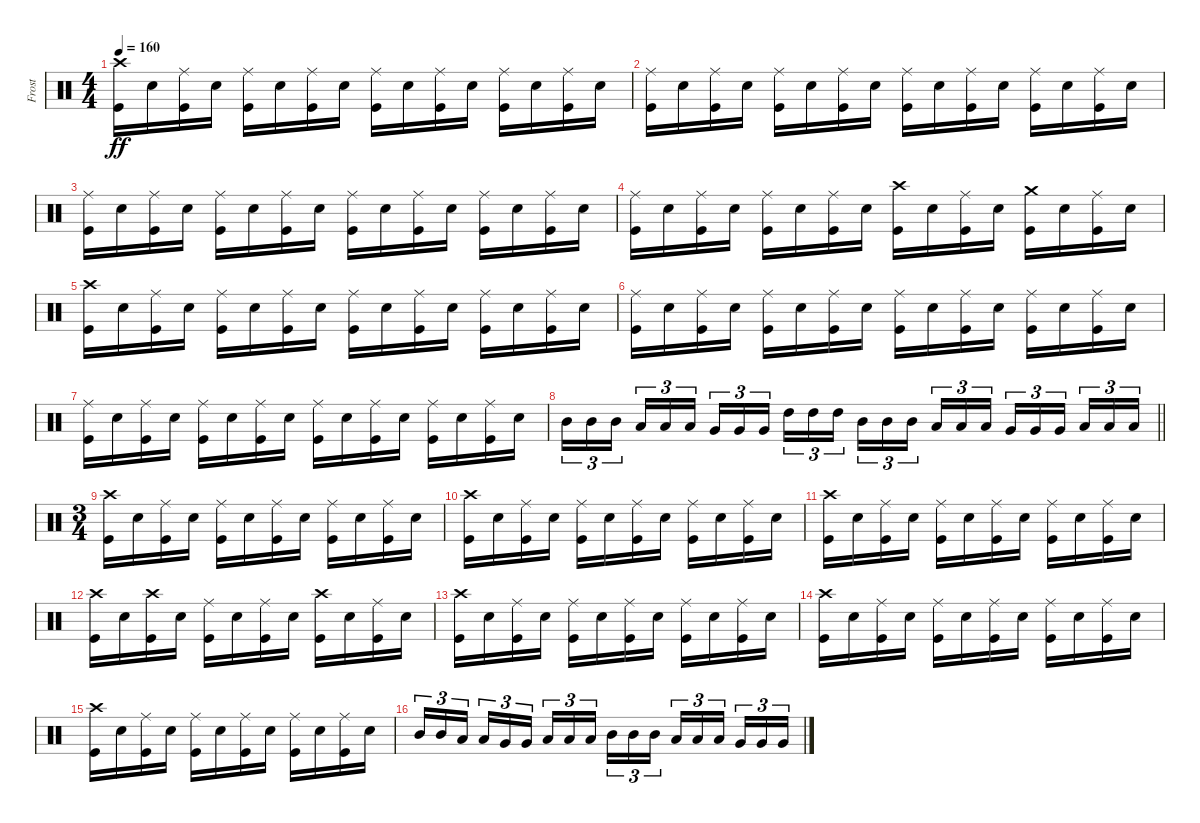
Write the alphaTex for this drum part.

\track ("Frost" "Frost") {instrument percussion}
\staff {score}
\articulation defaults
\ts (4 4)
\tempo 160
\clef neutral
\ks c
("Crash high (hit)" "Kick (hit)").16{dy ff} "Snare (hit) 2".16 ("Ride (middle)" "Kick (hit)").16 "Snare (hit) 2".16 ("Ride (middle)" "Kick (hit)").16 "Snare (hit) 2".16 ("Ride (middle)" "Kick (hit)").16 "Snare (hit) 2".16 ("Ride (middle)" "Kick (hit)").16 "Snare (hit) 2".16 ("Ride (middle)" "Kick (hit)").16 "Snare (hit) 2".16 ("Ride (middle)" "Kick (hit)").16 "Snare (hit) 2".16 ("Ride (middle)" "Kick (hit)").16 "Snare (hit) 2".16 |
("Ride (middle)" "Kick (hit)").16 "Snare (hit) 2".16 ("Ride (middle)" "Kick (hit)").16 "Snare (hit) 2".16 ("Ride (middle)" "Kick (hit)").16 "Snare (hit) 2".16 ("Ride (middle)" "Kick (hit)").16 "Snare (hit) 2".16 ("Ride (middle)" "Kick (hit)").16 "Snare (hit) 2".16 ("Ride (middle)" "Kick (hit)").16 "Snare (hit) 2".16 ("Ride (middle)" "Kick (hit)").16 "Snare (hit) 2".16 ("Ride (middle)" "Kick (hit)").16 "Snare (hit) 2".16 |
("Ride (middle)" "Kick (hit)").16 "Snare (hit) 2".16 ("Ride (middle)" "Kick (hit)").16 "Snare (hit) 2".16 ("Ride (middle)" "Kick (hit)").16 "Snare (hit) 2".16 ("Ride (middle)" "Kick (hit)").16 "Snare (hit) 2".16 ("Ride (middle)" "Kick (hit)").16 "Snare (hit) 2".16 ("Ride (middle)" "Kick (hit)").16 "Snare (hit) 2".16 ("Ride (middle)" "Kick (hit)").16 "Snare (hit) 2".16 ("Ride (middle)" "Kick (hit)").16 "Snare (hit) 2".16 |
("Ride (middle)" "Kick (hit)").16 "Snare (hit) 2".16 ("Ride (middle)" "Kick (hit)").16 "Snare (hit) 2".16 ("Ride (middle)" "Kick (hit)").16 "Snare (hit) 2".16 ("Ride (middle)" "Kick (hit)").16 "Snare (hit) 2".16 ("Crash high (hit)" "Kick (hit)").16 "Snare (hit) 2".16 ("Ride (middle)" "Kick (hit)").16 "Snare (hit) 2".16 ("Crash medium (hit)" "Kick (hit)").16 "Snare (hit) 2".16 ("Ride (middle)" "Kick (hit)").16 "Snare (hit) 2".16 |
("Crash high (hit)" "Kick (hit)").16 "Snare (hit) 2".16 ("Ride (middle)" "Kick (hit)").16 "Snare (hit) 2".16 ("Ride (middle)" "Kick (hit)").16 "Snare (hit) 2".16 ("Ride (middle)" "Kick (hit)").16 "Snare (hit) 2".16 ("Ride (middle)" "Kick (hit)").16 "Snare (hit) 2".16 ("Ride (middle)" "Kick (hit)").16 "Snare (hit) 2".16 ("Ride (middle)" "Kick (hit)").16 "Snare (hit) 2".16 ("Ride (middle)" "Kick (hit)").16 "Snare (hit) 2".16 |
("Ride (middle)" "Kick (hit)").16 "Snare (hit) 2".16 ("Ride (middle)" "Kick (hit)").16 "Snare (hit) 2".16 ("Ride (middle)" "Kick (hit)").16 "Snare (hit) 2".16 ("Ride (middle)" "Kick (hit)").16 "Snare (hit) 2".16 ("Ride (middle)" "Kick (hit)").16 "Snare (hit) 2".16 ("Ride (middle)" "Kick (hit)").16 "Snare (hit) 2".16 ("Ride (middle)" "Kick (hit)").16 "Snare (hit) 2".16 ("Ride (middle)" "Kick (hit)").16 "Snare (hit) 2".16 |
("Ride (middle)" "Kick (hit)").16 "Snare (hit) 2".16 ("Ride (middle)" "Kick (hit)").16 "Snare (hit) 2".16 ("Ride (middle)" "Kick (hit)").16 "Snare (hit) 2".16 ("Ride (middle)" "Kick (hit)").16 "Snare (hit) 2".16 ("Ride (middle)" "Kick (hit)").16 "Snare (hit) 2".16 ("Ride (middle)" "Kick (hit)").16 "Snare (hit) 2".16 ("Ride (middle)" "Kick (hit)").16 "Snare (hit) 2".16 ("Ride (middle)" "Kick (hit)").16 "Snare (hit) 2".16 |
\barLineRight lightlight "Mid Tom (hit)".16{tu (3 2)} "Mid Tom (hit)".16{tu (3 2)} "Mid Tom (hit)".16{tu (3 2) beam splitsecondary} "Low Tom (hit)".16{tu (3 2)} "Low Tom (hit)".16{tu (3 2)} "Low Tom (hit)".16{tu (3 2)} "Very Low Tom (hit)".16{tu (3 2)} "Very Low Tom (hit)".16{tu (3 2)} "Very Low Tom (hit)".16{tu (3 2) beam splitsecondary} "High Tom (hit)".16{tu (3 2)} "High Tom (hit)".16{tu (3 2)} "High Tom (hit)".16{tu (3 2)} "Mid Tom (hit)".16{tu (3 2)} "Mid Tom (hit)".16{tu (3 2)} "Mid Tom (hit)".16{tu (3 2) beam splitsecondary} "Low Tom (hit)".16{tu (3 2)} "Low Tom (hit)".16{tu (3 2)} "Low Tom (hit)".16{tu (3 2)} "Very Low Tom (hit)".16{tu (3 2)} "Very Low Tom (hit)".16{tu (3 2)} "Very Low Tom (hit)".16{tu (3 2) beam splitsecondary} "Low Floor Tom (hit)".16{tu (3 2)} "Low Floor Tom (hit)".16{tu (3 2)} "Low Floor Tom (hit)".16{tu (3 2)}
|
\ts (3 4)
("Crash high (hit)" "Kick (hit)").16 "Snare (hit) 2".16 ("Ride (middle)" "Kick (hit)").16 "Snare (hit) 2".16 ("Ride (middle)" "Kick (hit)").16 "Snare (hit) 2".16 ("Ride (middle)" "Kick (hit)").16 "Snare (hit) 2".16 ("Ride (middle)" "Kick (hit)").16 "Snare (hit) 2".16 ("Ride (middle)" "Kick (hit)").16 "Snare (hit) 2".16 |
("Crash high (hit)" "Kick (hit)").16 "Snare (hit) 2".16 ("Ride (middle)" "Kick (hit)").16 "Snare (hit) 2".16 ("Ride (middle)" "Kick (hit)").16 "Snare (hit) 2".16 ("Ride (middle)" "Kick (hit)").16 "Snare (hit) 2".16 ("Ride (middle)" "Kick (hit)").16 "Snare (hit) 2".16 ("Ride (middle)" "Kick (hit)").16 "Snare (hit) 2".16 |
("Crash high (hit)" "Kick (hit)").16 "Snare (hit) 2".16 ("Ride (middle)" "Kick (hit)").16 "Snare (hit) 2".16 ("Ride (middle)" "Kick (hit)").16 "Snare (hit) 2".16 ("Ride (middle)" "Kick (hit)").16 "Snare (hit) 2".16 ("Ride (middle)" "Kick (hit)").16 "Snare (hit) 2".16 ("Ride (middle)" "Kick (hit)").16 "Snare (hit) 2".16 |
("Crash high (hit)" "Kick (hit)").16 "Snare (hit) 2".16 ("Crash high (hit)" "Kick (hit)").16 "Snare (hit) 2".16 ("Ride (middle)" "Kick (hit)").16 "Snare (hit) 2".16 ("Ride (middle)" "Kick (hit)").16 "Snare (hit) 2".16 ("Crash high (hit)" "Kick (hit)").16 "Snare (hit) 2".16 ("Ride (middle)" "Kick (hit)").16 "Snare (hit) 2".16 |
("Crash high (hit)" "Kick (hit)").16 "Snare (hit) 2".16 ("Ride (middle)" "Kick (hit)").16 "Snare (hit) 2".16 ("Ride (middle)" "Kick (hit)").16 "Snare (hit) 2".16 ("Ride (middle)" "Kick (hit)").16 "Snare (hit) 2".16 ("Ride (middle)" "Kick (hit)").16 "Snare (hit) 2".16 ("Ride (middle)" "Kick (hit)").16 "Snare (hit) 2".16 |
("Crash high (hit)" "Kick (hit)").16 "Snare (hit) 2".16 ("Ride (middle)" "Kick (hit)").16 "Snare (hit) 2".16 ("Ride (middle)" "Kick (hit)").16 "Snare (hit) 2".16 ("Ride (middle)" "Kick (hit)").16 "Snare (hit) 2".16 ("Ride (middle)" "Kick (hit)").16 "Snare (hit) 2".16 ("Ride (middle)" "Kick (hit)").16 "Snare (hit) 2".16 |
("Crash high (hit)" "Kick (hit)").16 "Snare (hit) 2".16 ("Ride (middle)" "Kick (hit)").16 "Snare (hit) 2".16 ("Ride (middle)" "Kick (hit)").16 "Snare (hit) 2".16 ("Ride (middle)" "Kick (hit)").16 "Snare (hit) 2".16 ("Ride (middle)" "Kick (hit)").16 "Snare (hit) 2".16 ("Ride (middle)" "Kick (hit)").16 "Snare (hit) 2".16 |
"Mid Tom (hit)".16{tu (3 2)} "Mid Tom (hit)".16{tu (3 2)} "Low Tom (hit)".16{tu (3 2) beam splitsecondary} "Low Tom (hit)".16{tu (3 2)} "Very Low Tom (hit)".16{tu (3 2)} "Very Low Tom (hit)".16{tu (3 2)} "Low Floor Tom (hit)".16{tu (3 2)} "Low Floor Tom (hit)".16{tu (3 2)} "Low Floor Tom (hit)".16{tu (3 2) beam splitsecondary} "Mid Tom (hit)".16{tu (3 2)} "Mid Tom (hit)".16{tu (3 2)} "Mid Tom (hit)".16{tu (3 2)} "Low Tom (hit)".16{tu (3 2)} "Low Tom (hit)".16{tu (3 2)} "Low Tom (hit)".16{tu (3 2) beam splitsecondary} "Very Low Tom (hit)".16{tu (3 2)} "Very Low Tom (hit)".16{tu (3 2)} "Very Low Tom (hit)".16{tu (3 2)}
